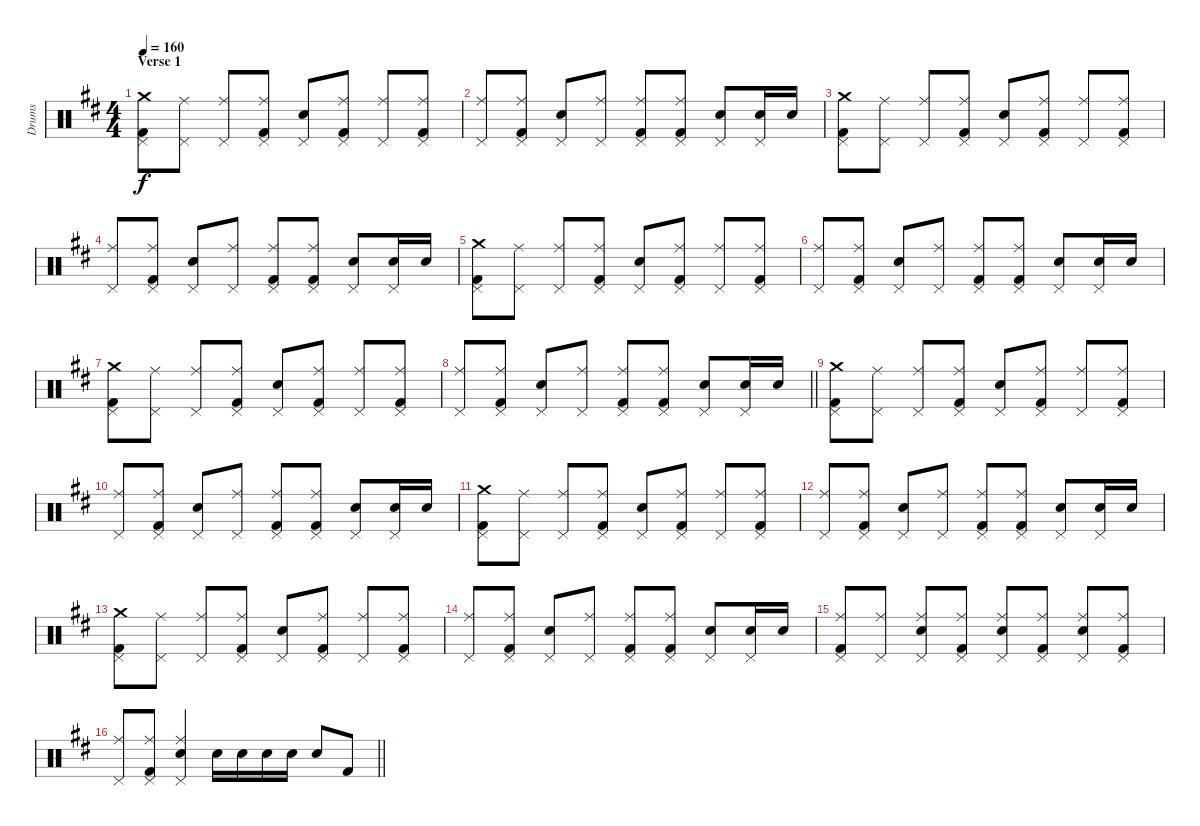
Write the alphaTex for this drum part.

\track ("Drums" "Drums") {instrument percussion}
\staff {score}
\articulation defaults
\ts (4 4)
\section ("" "Verse 1")
\tempo 160
\clef neutral
\ks d
("Crash medium (hit)" "Pedal Hi-Hat (hit)" "Kick (hit) 2").8{dy f} ("Ride (middle)" "Pedal Hi-Hat (hit)").8 ("Ride (middle)" "Pedal Hi-Hat (hit)").8 ("Ride (middle)" "Pedal Hi-Hat (hit)" "Kick (hit) 2").8 ("Electric Snare (hit)" "Pedal Hi-Hat (hit)").8 ("Ride (middle)" "Pedal Hi-Hat (hit)" "Kick (hit) 2").8 ("Ride (middle)" "Pedal Hi-Hat (hit)").8 ("Ride (middle)" "Pedal Hi-Hat (hit)" "Kick (hit) 2").8 |
("Ride (middle)" "Pedal Hi-Hat (hit)").8 ("Ride (middle)" "Pedal Hi-Hat (hit)" "Kick (hit) 2").8 ("Electric Snare (hit)" "Pedal Hi-Hat (hit)").8 ("Ride (middle)" "Pedal Hi-Hat (hit)").8 ("Ride (middle)" "Pedal Hi-Hat (hit)" "Kick (hit) 2").8 ("Ride (middle)" "Pedal Hi-Hat (hit)" "Kick (hit) 2").8 ("Electric Snare (hit)" "Pedal Hi-Hat (hit)").8 ("Snare (hit) 2" "Pedal Hi-Hat (hit)").16 "Snare (hit) 2".16 |
("Crash medium (hit)" "Pedal Hi-Hat (hit)" "Kick (hit) 2").8 ("Ride (middle)" "Pedal Hi-Hat (hit)").8 ("Ride (middle)" "Pedal Hi-Hat (hit)").8 ("Ride (middle)" "Pedal Hi-Hat (hit)" "Kick (hit) 2").8 ("Electric Snare (hit)" "Pedal Hi-Hat (hit)").8 ("Ride (middle)" "Pedal Hi-Hat (hit)" "Kick (hit) 2").8 ("Ride (middle)" "Pedal Hi-Hat (hit)").8 ("Ride (middle)" "Pedal Hi-Hat (hit)" "Kick (hit) 2").8 |
("Ride (middle)" "Pedal Hi-Hat (hit)").8 ("Ride (middle)" "Pedal Hi-Hat (hit)" "Kick (hit) 2").8 ("Electric Snare (hit)" "Pedal Hi-Hat (hit)").8 ("Ride (middle)" "Pedal Hi-Hat (hit)").8 ("Ride (middle)" "Pedal Hi-Hat (hit)" "Kick (hit) 2").8 ("Ride (middle)" "Pedal Hi-Hat (hit)" "Kick (hit) 2").8 ("Electric Snare (hit)" "Pedal Hi-Hat (hit)").8 ("Snare (hit) 2" "Pedal Hi-Hat (hit)").16 "Snare (hit) 2".16 |
("Crash medium (hit)" "Pedal Hi-Hat (hit)" "Kick (hit) 2").8 ("Ride (middle)" "Pedal Hi-Hat (hit)").8 ("Ride (middle)" "Pedal Hi-Hat (hit)").8 ("Ride (middle)" "Pedal Hi-Hat (hit)" "Kick (hit) 2").8 ("Electric Snare (hit)" "Pedal Hi-Hat (hit)").8 ("Ride (middle)" "Pedal Hi-Hat (hit)" "Kick (hit) 2").8 ("Ride (middle)" "Pedal Hi-Hat (hit)").8 ("Ride (middle)" "Pedal Hi-Hat (hit)" "Kick (hit) 2").8 |
("Ride (middle)" "Pedal Hi-Hat (hit)").8 ("Ride (middle)" "Pedal Hi-Hat (hit)" "Kick (hit) 2").8 ("Electric Snare (hit)" "Pedal Hi-Hat (hit)").8 ("Ride (middle)" "Pedal Hi-Hat (hit)").8 ("Ride (middle)" "Pedal Hi-Hat (hit)" "Kick (hit) 2").8 ("Ride (middle)" "Pedal Hi-Hat (hit)" "Kick (hit) 2").8 ("Electric Snare (hit)" "Pedal Hi-Hat (hit)").8 ("Snare (hit) 2" "Pedal Hi-Hat (hit)").16 "Snare (hit) 2".16 |
("Crash medium (hit)" "Pedal Hi-Hat (hit)" "Kick (hit) 2").8 ("Ride (middle)" "Pedal Hi-Hat (hit)").8 ("Ride (middle)" "Pedal Hi-Hat (hit)").8 ("Ride (middle)" "Pedal Hi-Hat (hit)" "Kick (hit) 2").8 ("Electric Snare (hit)" "Pedal Hi-Hat (hit)").8 ("Ride (middle)" "Pedal Hi-Hat (hit)" "Kick (hit) 2").8 ("Ride (middle)" "Pedal Hi-Hat (hit)").8 ("Ride (middle)" "Pedal Hi-Hat (hit)" "Kick (hit) 2").8 |
\barLineRight lightlight
("Ride (middle)" "Pedal Hi-Hat (hit)").8 ("Ride (middle)" "Pedal Hi-Hat (hit)" "Kick (hit) 2").8 ("Electric Snare (hit)" "Pedal Hi-Hat (hit)").8 ("Ride (middle)" "Pedal Hi-Hat (hit)").8 ("Ride (middle)" "Pedal Hi-Hat (hit)" "Kick (hit) 2").8 ("Ride (middle)" "Pedal Hi-Hat (hit)" "Kick (hit) 2").8 ("Electric Snare (hit)" "Pedal Hi-Hat (hit)").8 ("Snare (hit) 2" "Pedal Hi-Hat (hit)").16 "Snare (hit) 2".16 |
("Crash medium (hit)" "Pedal Hi-Hat (hit)" "Kick (hit) 2").8 ("Ride (middle)" "Pedal Hi-Hat (hit)").8 ("Ride (middle)" "Pedal Hi-Hat (hit)").8 ("Ride (middle)" "Pedal Hi-Hat (hit)" "Kick (hit) 2").8 ("Electric Snare (hit)" "Pedal Hi-Hat (hit)").8 ("Ride (middle)" "Pedal Hi-Hat (hit)" "Kick (hit) 2").8 ("Ride (middle)" "Pedal Hi-Hat (hit)").8 ("Ride (middle)" "Pedal Hi-Hat (hit)" "Kick (hit) 2").8 |
("Ride (middle)" "Pedal Hi-Hat (hit)").8 ("Ride (middle)" "Pedal Hi-Hat (hit)" "Kick (hit) 2").8 ("Electric Snare (hit)" "Pedal Hi-Hat (hit)").8 ("Ride (middle)" "Pedal Hi-Hat (hit)").8 ("Ride (middle)" "Pedal Hi-Hat (hit)" "Kick (hit) 2").8 ("Ride (middle)" "Pedal Hi-Hat (hit)" "Kick (hit) 2").8 ("Electric Snare (hit)" "Pedal Hi-Hat (hit)").8 ("Snare (hit) 2" "Pedal Hi-Hat (hit)").16 "Snare (hit) 2".16 |
("Crash medium (hit)" "Pedal Hi-Hat (hit)" "Kick (hit) 2").8 ("Ride (middle)" "Pedal Hi-Hat (hit)").8 ("Ride (middle)" "Pedal Hi-Hat (hit)").8 ("Ride (middle)" "Pedal Hi-Hat (hit)" "Kick (hit) 2").8 ("Electric Snare (hit)" "Pedal Hi-Hat (hit)").8 ("Ride (middle)" "Pedal Hi-Hat (hit)" "Kick (hit) 2").8 ("Ride (middle)" "Pedal Hi-Hat (hit)").8 ("Ride (middle)" "Pedal Hi-Hat (hit)" "Kick (hit) 2").8 |
("Ride (middle)" "Pedal Hi-Hat (hit)").8 ("Ride (middle)" "Pedal Hi-Hat (hit)" "Kick (hit) 2").8 ("Electric Snare (hit)" "Pedal Hi-Hat (hit)").8 ("Ride (middle)" "Pedal Hi-Hat (hit)").8 ("Ride (middle)" "Pedal Hi-Hat (hit)" "Kick (hit) 2").8 ("Ride (middle)" "Pedal Hi-Hat (hit)" "Kick (hit) 2").8 ("Snare (hit) 2" "Pedal Hi-Hat (hit)").8 ("Snare (hit) 2" "Pedal Hi-Hat (hit)").16 "Snare (hit) 2".16 |
("Crash medium (hit)" "Pedal Hi-Hat (hit)" "Kick (hit) 2").8 ("Ride (middle)" "Pedal Hi-Hat (hit)").8 ("Ride (middle)" "Pedal Hi-Hat (hit)").8 ("Ride (middle)" "Pedal Hi-Hat (hit)" "Kick (hit) 2").8 ("Electric Snare (hit)" "Pedal Hi-Hat (hit)").8 ("Ride (middle)" "Pedal Hi-Hat (hit)" "Kick (hit) 2").8 ("Ride (middle)" "Pedal Hi-Hat (hit)").8 ("Ride (middle)" "Pedal Hi-Hat (hit)" "Kick (hit) 2").8 |
("Ride (middle)" "Pedal Hi-Hat (hit)").8 ("Ride (middle)" "Pedal Hi-Hat (hit)" "Kick (hit) 2").8 ("Electric Snare (hit)" "Pedal Hi-Hat (hit)").8 ("Ride (middle)" "Pedal Hi-Hat (hit)").8 ("Ride (middle)" "Pedal Hi-Hat (hit)" "Kick (hit) 2").8 ("Ride (middle)" "Pedal Hi-Hat (hit)" "Kick (hit) 2").8 ("Electric Snare (hit)" "Pedal Hi-Hat (hit)").8 ("Snare (hit) 2" "Pedal Hi-Hat (hit)").16 "Snare (hit) 2".16 |
("Ride (middle)" "Pedal Hi-Hat (hit)" "Kick (hit) 2").8 ("Ride (middle)" "Pedal Hi-Hat (hit)").8 ("Ride (middle)" "Pedal Hi-Hat (hit)" "Electric Snare (hit)").8 ("Ride (middle)" "Pedal Hi-Hat (hit)" "Kick (hit) 2").8 ("Ride (middle)" "Pedal Hi-Hat (hit)" "Electric Snare (hit)").8 ("Ride (middle)" "Pedal Hi-Hat (hit)" "Kick (hit) 2").8 ("Ride (middle)" "Pedal Hi-Hat (hit)" "Electric Snare (hit)").8 ("Ride (middle)" "Pedal Hi-Hat (hit)" "Kick (hit) 2").8 |
\barLineRight lightlight
("Ride (middle)" "Pedal Hi-Hat (hit)").8 ("Ride (middle)" "Pedal Hi-Hat (hit)" "Kick (hit) 2").8 ("Ride (middle)" "Pedal Hi-Hat (hit)" "Electric Snare (hit)").4 "Electric Snare (hit)".16 "Electric Snare (hit)".16 "Electric Snare (hit)".16 "Electric Snare (hit)".16 "Electric Snare (hit)".8 "Kick (hit) 2".8
